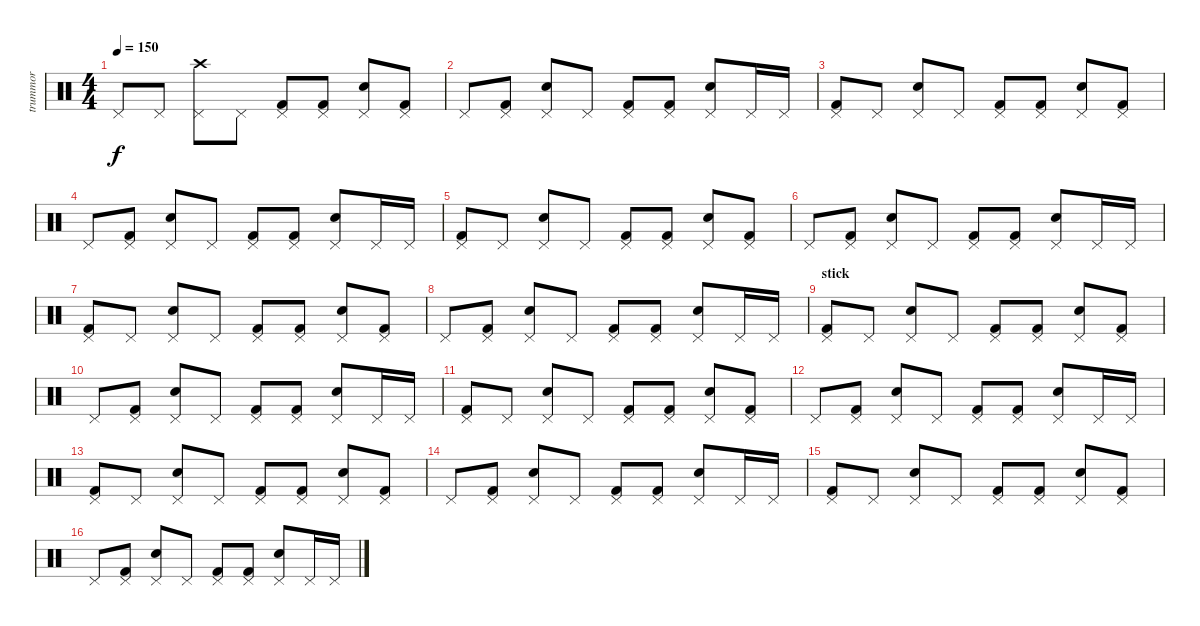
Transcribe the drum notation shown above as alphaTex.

\track ("trummor" "trummor") {instrument percussion}
\staff {score}
\articulation defaults
\ts (4 4)
\tempo 150
\clef neutral
\ks c "Pedal Hi-Hat (hit)".8{dy f} "Pedal Hi-Hat (hit)".8
("Pedal Hi-Hat (hit)" "Crash high (hit)").8 "Pedal Hi-Hat (hit)".8 ("Pedal Hi-Hat (hit)" "Kick (hit) 2").8 ("Pedal Hi-Hat (hit)" "Kick (hit) 2").8 ("Pedal Hi-Hat (hit)" "Snare (hit) 2").8 ("Pedal Hi-Hat (hit)" "Kick (hit) 2").8 |
"Pedal Hi-Hat (hit)".8 ("Pedal Hi-Hat (hit)" "Kick (hit) 2").8 ("Pedal Hi-Hat (hit)" "Snare (hit) 2").8 "Pedal Hi-Hat (hit)".8 ("Pedal Hi-Hat (hit)" "Kick (hit) 2").8 ("Pedal Hi-Hat (hit)" "Kick (hit) 2").8 ("Pedal Hi-Hat (hit)" "Snare (hit) 2").8 "Pedal Hi-Hat (hit)".16 "Pedal Hi-Hat (hit)".16 |
("Pedal Hi-Hat (hit)" "Kick (hit) 2").8 "Pedal Hi-Hat (hit)".8 ("Pedal Hi-Hat (hit)" "Snare (hit) 2").8 "Pedal Hi-Hat (hit)".8 ("Pedal Hi-Hat (hit)" "Kick (hit) 2").8 ("Pedal Hi-Hat (hit)" "Kick (hit) 2").8 ("Pedal Hi-Hat (hit)" "Snare (hit) 2").8 ("Pedal Hi-Hat (hit)" "Kick (hit) 2").8 |
"Pedal Hi-Hat (hit)".8 ("Pedal Hi-Hat (hit)" "Kick (hit) 2").8 ("Pedal Hi-Hat (hit)" "Snare (hit) 2").8 "Pedal Hi-Hat (hit)".8 ("Pedal Hi-Hat (hit)" "Kick (hit) 2").8 ("Pedal Hi-Hat (hit)" "Kick (hit) 2").8 ("Pedal Hi-Hat (hit)" "Snare (hit) 2").8 "Pedal Hi-Hat (hit)".16 "Pedal Hi-Hat (hit)".16 |
("Pedal Hi-Hat (hit)" "Kick (hit) 2").8 "Pedal Hi-Hat (hit)".8 ("Pedal Hi-Hat (hit)" "Snare (hit) 2").8 "Pedal Hi-Hat (hit)".8 ("Pedal Hi-Hat (hit)" "Kick (hit) 2").8 ("Pedal Hi-Hat (hit)" "Kick (hit) 2").8 ("Pedal Hi-Hat (hit)" "Snare (hit) 2").8 ("Pedal Hi-Hat (hit)" "Kick (hit) 2").8 |
"Pedal Hi-Hat (hit)".8 ("Pedal Hi-Hat (hit)" "Kick (hit) 2").8 ("Pedal Hi-Hat (hit)" "Snare (hit) 2").8 "Pedal Hi-Hat (hit)".8 ("Pedal Hi-Hat (hit)" "Kick (hit) 2").8 ("Pedal Hi-Hat (hit)" "Kick (hit) 2").8 ("Pedal Hi-Hat (hit)" "Snare (hit) 2").8 "Pedal Hi-Hat (hit)".16 "Pedal Hi-Hat (hit)".16 |
("Pedal Hi-Hat (hit)" "Kick (hit) 2").8 "Pedal Hi-Hat (hit)".8 ("Pedal Hi-Hat (hit)" "Snare (hit) 2").8 "Pedal Hi-Hat (hit)".8 ("Pedal Hi-Hat (hit)" "Kick (hit) 2").8 ("Pedal Hi-Hat (hit)" "Kick (hit) 2").8 ("Pedal Hi-Hat (hit)" "Snare (hit) 2").8 ("Pedal Hi-Hat (hit)" "Kick (hit) 2").8 |
"Pedal Hi-Hat (hit)".8 ("Pedal Hi-Hat (hit)" "Kick (hit) 2").8 ("Pedal Hi-Hat (hit)" "Snare (hit) 2").8 "Pedal Hi-Hat (hit)".8 ("Pedal Hi-Hat (hit)" "Kick (hit) 2").8 ("Pedal Hi-Hat (hit)" "Kick (hit) 2").8 ("Pedal Hi-Hat (hit)" "Snare (hit) 2").8 "Pedal Hi-Hat (hit)".16 "Pedal Hi-Hat (hit)".16 |
\section ("" "stick")
("Pedal Hi-Hat (hit)" "Kick (hit) 2").8 "Pedal Hi-Hat (hit)".8 ("Pedal Hi-Hat (hit)" "Snare (hit) 2").8 "Pedal Hi-Hat (hit)".8 ("Pedal Hi-Hat (hit)" "Kick (hit) 2").8 ("Pedal Hi-Hat (hit)" "Kick (hit) 2").8 ("Pedal Hi-Hat (hit)" "Snare (hit) 2").8 ("Pedal Hi-Hat (hit)" "Kick (hit) 2").8 |
"Pedal Hi-Hat (hit)".8 ("Pedal Hi-Hat (hit)" "Kick (hit) 2").8 ("Pedal Hi-Hat (hit)" "Snare (hit) 2").8 "Pedal Hi-Hat (hit)".8 ("Pedal Hi-Hat (hit)" "Kick (hit) 2").8 ("Pedal Hi-Hat (hit)" "Kick (hit) 2").8 ("Pedal Hi-Hat (hit)" "Snare (hit) 2").8 "Pedal Hi-Hat (hit)".16 "Pedal Hi-Hat (hit)".16 |
("Pedal Hi-Hat (hit)" "Kick (hit) 2").8 "Pedal Hi-Hat (hit)".8 ("Pedal Hi-Hat (hit)" "Snare (hit) 2").8 "Pedal Hi-Hat (hit)".8 ("Pedal Hi-Hat (hit)" "Kick (hit) 2").8 ("Pedal Hi-Hat (hit)" "Kick (hit) 2").8 ("Pedal Hi-Hat (hit)" "Snare (hit) 2").8 ("Pedal Hi-Hat (hit)" "Kick (hit) 2").8 |
"Pedal Hi-Hat (hit)".8 ("Pedal Hi-Hat (hit)" "Kick (hit) 2").8 ("Pedal Hi-Hat (hit)" "Snare (hit) 2").8 "Pedal Hi-Hat (hit)".8 ("Pedal Hi-Hat (hit)" "Kick (hit) 2").8 ("Pedal Hi-Hat (hit)" "Kick (hit) 2").8 ("Pedal Hi-Hat (hit)" "Snare (hit) 2").8 "Pedal Hi-Hat (hit)".16 "Pedal Hi-Hat (hit)".16 |
("Pedal Hi-Hat (hit)" "Kick (hit) 2").8 "Pedal Hi-Hat (hit)".8 ("Pedal Hi-Hat (hit)" "Snare (hit) 2").8 "Pedal Hi-Hat (hit)".8 ("Pedal Hi-Hat (hit)" "Kick (hit) 2").8 ("Pedal Hi-Hat (hit)" "Kick (hit) 2").8 ("Pedal Hi-Hat (hit)" "Snare (hit) 2").8 ("Pedal Hi-Hat (hit)" "Kick (hit) 2").8 |
"Pedal Hi-Hat (hit)".8 ("Pedal Hi-Hat (hit)" "Kick (hit) 2").8 ("Pedal Hi-Hat (hit)" "Snare (hit) 2").8 "Pedal Hi-Hat (hit)".8 ("Pedal Hi-Hat (hit)" "Kick (hit) 2").8 ("Pedal Hi-Hat (hit)" "Kick (hit) 2").8 ("Pedal Hi-Hat (hit)" "Snare (hit) 2").8 "Pedal Hi-Hat (hit)".16 "Pedal Hi-Hat (hit)".16 |
("Pedal Hi-Hat (hit)" "Kick (hit) 2").8 "Pedal Hi-Hat (hit)".8 ("Pedal Hi-Hat (hit)" "Snare (hit) 2").8 "Pedal Hi-Hat (hit)".8 ("Pedal Hi-Hat (hit)" "Kick (hit) 2").8 ("Pedal Hi-Hat (hit)" "Kick (hit) 2").8 ("Pedal Hi-Hat (hit)" "Snare (hit) 2").8 ("Pedal Hi-Hat (hit)" "Kick (hit) 2").8 |
"Pedal Hi-Hat (hit)".8 ("Pedal Hi-Hat (hit)" "Kick (hit) 2").8 ("Pedal Hi-Hat (hit)" "Snare (hit) 2").8 "Pedal Hi-Hat (hit)".8 ("Pedal Hi-Hat (hit)" "Kick (hit) 2").8 ("Pedal Hi-Hat (hit)" "Kick (hit) 2").8 ("Pedal Hi-Hat (hit)" "Snare (hit) 2").8 "Pedal Hi-Hat (hit)".16 "Pedal Hi-Hat (hit)".16
